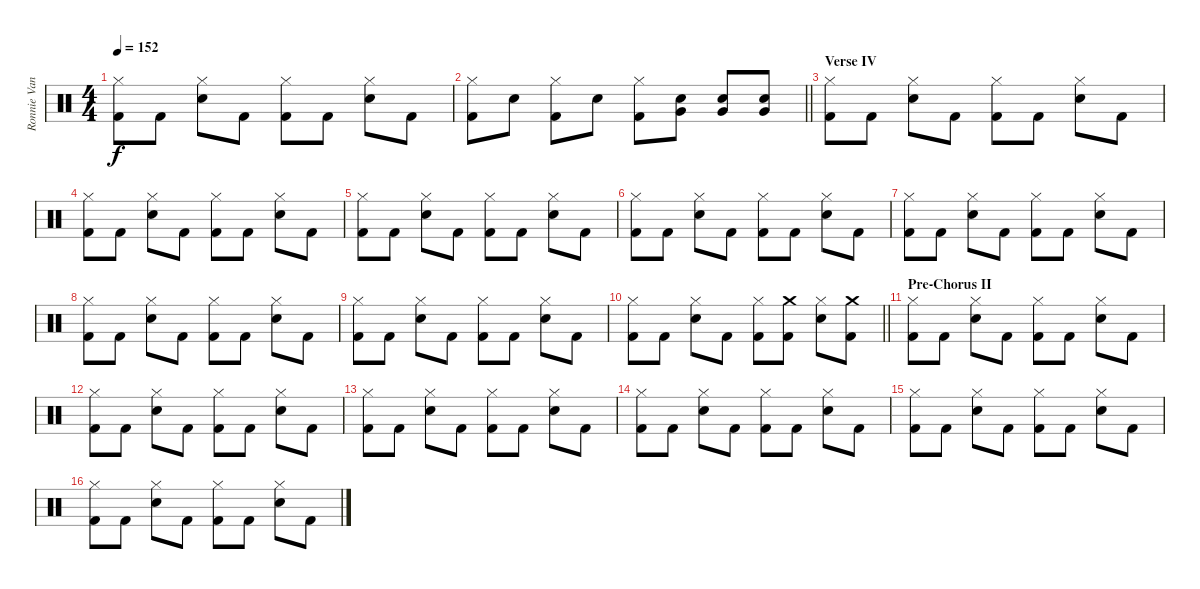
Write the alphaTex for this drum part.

\track ("Ronnie Vannucci Jr." "Ronnie Van") {instrument percussion}
\staff
\articulation defaults
\ts (4 4)
\tempo 152
\clef neutral
\ks c
("Hi-Hat (closed)" "Kick (hit) 2").8{dy f} "Kick (hit) 2".8 ("Hi-Hat (closed)" "Electric Snare (hit)").8 "Kick (hit) 2".8 ("Hi-Hat (closed)" "Kick (hit) 2").8 "Kick (hit) 2".8 ("Hi-Hat (closed)" "Electric Snare (hit)").8 "Kick (hit) 2".8 |
\barLineRight lightlight
("Hi-Hat (closed)" "Kick (hit) 2").8 "Electric Snare (hit)".8 ("Hi-Hat (closed)" "Kick (hit) 2").8 "Electric Snare (hit)".8 ("Hi-Hat (closed)" "Kick (hit) 2").8 ("Very Low Tom (hit)" "Electric Snare (hit)").8 ("Very Low Tom (hit)" "Electric Snare (hit)").8 ("Very Low Tom (hit)" "Electric Snare (hit)").8 |
\section ("" "Verse IV")
("Hi-Hat (closed)" "Kick (hit) 2").8 "Kick (hit) 2".8 ("Hi-Hat (closed)" "Electric Snare (hit)").8 "Kick (hit) 2".8 ("Hi-Hat (closed)" "Kick (hit) 2").8 "Kick (hit) 2".8 ("Hi-Hat (closed)" "Electric Snare (hit)").8 "Kick (hit) 2".8 |
("Hi-Hat (closed)" "Kick (hit) 2").8 "Kick (hit) 2".8 ("Hi-Hat (closed)" "Electric Snare (hit)").8 "Kick (hit) 2".8 ("Hi-Hat (closed)" "Kick (hit) 2").8 "Kick (hit) 2".8 ("Hi-Hat (closed)" "Electric Snare (hit)").8 "Kick (hit) 2".8 |
("Hi-Hat (closed)" "Kick (hit) 2").8 "Kick (hit) 2".8 ("Hi-Hat (closed)" "Electric Snare (hit)").8 "Kick (hit) 2".8 ("Hi-Hat (closed)" "Kick (hit) 2").8 "Kick (hit) 2".8 ("Hi-Hat (closed)" "Electric Snare (hit)").8 "Kick (hit) 2".8 |
("Hi-Hat (closed)" "Kick (hit) 2").8 "Kick (hit) 2".8 ("Hi-Hat (closed)" "Electric Snare (hit)").8 "Kick (hit) 2".8 ("Hi-Hat (closed)" "Kick (hit) 2").8 "Kick (hit) 2".8 ("Hi-Hat (closed)" "Electric Snare (hit)").8 "Kick (hit) 2".8 |
("Hi-Hat (closed)" "Kick (hit) 2").8 "Kick (hit) 2".8 ("Hi-Hat (closed)" "Electric Snare (hit)").8 "Kick (hit) 2".8 ("Hi-Hat (closed)" "Kick (hit) 2").8 "Kick (hit) 2".8 ("Hi-Hat (closed)" "Electric Snare (hit)").8 "Kick (hit) 2".8 |
("Hi-Hat (closed)" "Kick (hit) 2").8 "Kick (hit) 2".8 ("Hi-Hat (closed)" "Electric Snare (hit)").8 "Kick (hit) 2".8 ("Hi-Hat (closed)" "Kick (hit) 2").8 "Kick (hit) 2".8 ("Hi-Hat (closed)" "Electric Snare (hit)").8 "Kick (hit) 2".8 |
("Hi-Hat (closed)" "Kick (hit) 2").8 "Kick (hit) 2".8 ("Hi-Hat (closed)" "Electric Snare (hit)").8 "Kick (hit) 2".8 ("Hi-Hat (closed)" "Kick (hit) 2").8 "Kick (hit) 2".8 ("Hi-Hat (closed)" "Electric Snare (hit)").8 "Kick (hit) 2".8 |
\barLineRight lightlight
("Hi-Hat (closed)" "Kick (hit) 2").8 "Kick (hit) 2".8 ("Hi-Hat (closed)" "Electric Snare (hit)").8 "Kick (hit) 2".8 ("Hi-Hat (closed)" "Kick (hit) 2").8 ("Crash medium (hit)" "Kick (hit) 2").8 ("Hi-Hat (closed)" "Electric Snare (hit)").8 ("Crash medium (hit)" "Kick (hit) 2").8 |
\section ("" "Pre-Chorus II")
("Hi-Hat (closed)" "Kick (hit) 2").8 "Kick (hit) 2".8 ("Hi-Hat (closed)" "Electric Snare (hit)").8 "Kick (hit) 2".8 ("Hi-Hat (closed)" "Kick (hit) 2").8 "Kick (hit) 2".8 ("Hi-Hat (closed)" "Electric Snare (hit)").8 "Kick (hit) 2".8 |
("Hi-Hat (closed)" "Kick (hit) 2").8 "Kick (hit) 2".8 ("Hi-Hat (closed)" "Electric Snare (hit)").8 "Kick (hit) 2".8 ("Hi-Hat (closed)" "Kick (hit) 2").8 "Kick (hit) 2".8 ("Hi-Hat (closed)" "Electric Snare (hit)").8 "Kick (hit) 2".8 |
("Hi-Hat (closed)" "Kick (hit) 2").8 "Kick (hit) 2".8 ("Hi-Hat (closed)" "Electric Snare (hit)").8 "Kick (hit) 2".8 ("Hi-Hat (closed)" "Kick (hit) 2").8 "Kick (hit) 2".8 ("Hi-Hat (closed)" "Electric Snare (hit)").8 "Kick (hit) 2".8 |
("Hi-Hat (closed)" "Kick (hit) 2").8 "Kick (hit) 2".8 ("Hi-Hat (closed)" "Electric Snare (hit)").8 "Kick (hit) 2".8 ("Hi-Hat (closed)" "Kick (hit) 2").8 "Kick (hit) 2".8 ("Hi-Hat (closed)" "Electric Snare (hit)").8 "Kick (hit) 2".8 |
("Hi-Hat (closed)" "Kick (hit) 2").8 "Kick (hit) 2".8 ("Hi-Hat (closed)" "Electric Snare (hit)").8 "Kick (hit) 2".8 ("Hi-Hat (closed)" "Kick (hit) 2").8 "Kick (hit) 2".8 ("Hi-Hat (closed)" "Electric Snare (hit)").8 "Kick (hit) 2".8 |
("Hi-Hat (closed)" "Kick (hit) 2").8 "Kick (hit) 2".8 ("Hi-Hat (closed)" "Electric Snare (hit)").8 "Kick (hit) 2".8 ("Hi-Hat (closed)" "Kick (hit) 2").8 "Kick (hit) 2".8 ("Hi-Hat (closed)" "Electric Snare (hit)").8 "Kick (hit) 2".8
